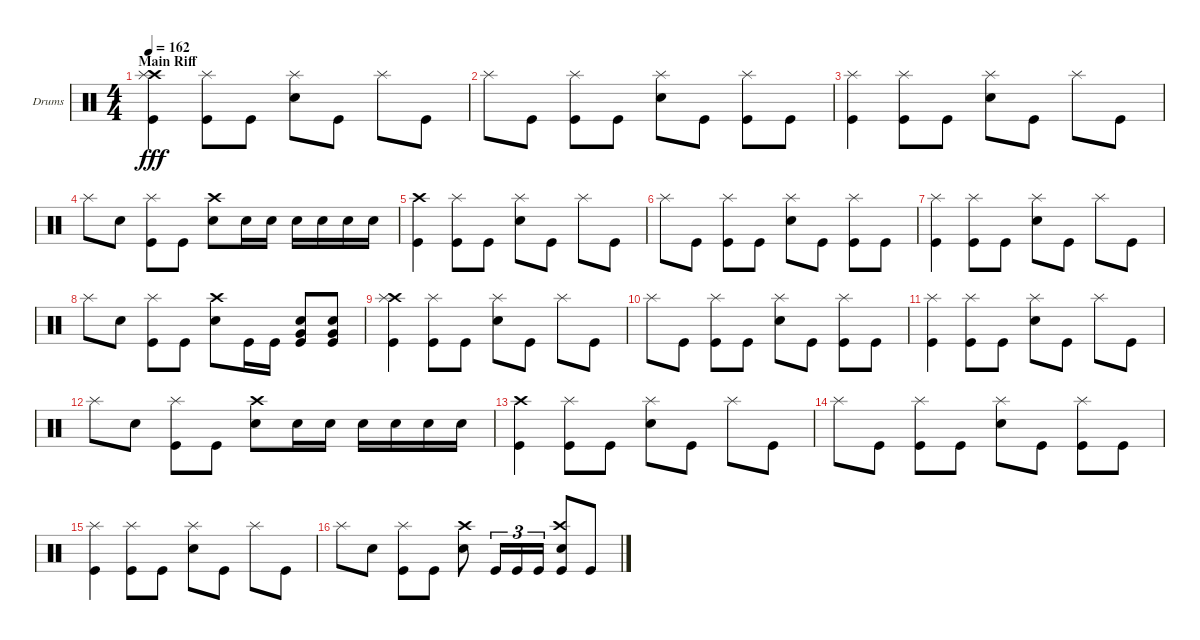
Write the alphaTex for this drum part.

\bracketExtendMode groupsimilarinstruments
\firstSystemTrackNameOrientation horizontal
\otherSystemsTrackNameOrientation horizontal
\track ("Drumkit" "Drums") {instrument percussion}
\staff {score}
\articulation defaults
\ts (4 4)
\section ("" "Main Riff")
\tempo 162
\clef neutral
\ks c
("Kick (hit)" "Crash high (hit)" "Splash (hit)").4{dy fff} ("Splash (hit)" "Kick (hit)").8 "Kick (hit)".8 ("Splash (hit)" "Snare (hit) 2").8 "Kick (hit)".8 "Splash (hit)".8 "Kick (hit)".8 |
"Splash (hit)".8 "Kick (hit)".8 ("Splash (hit)" "Kick (hit)").8 "Kick (hit)".8 ("Splash (hit)" "Snare (hit) 2").8 "Kick (hit)".8 ("Kick (hit)" "Splash (hit)").8 "Kick (hit)".8 |
("Kick (hit)" "Splash (hit)").4 ("Splash (hit)" "Kick (hit)").8 "Kick (hit)".8 ("Splash (hit)" "Snare (hit) 2").8 "Kick (hit)".8 "Splash (hit)".8 "Kick (hit)".8 |
"Splash (hit)".8 "Snare (hit) 2".8 ("Splash (hit)" "Kick (hit)").8 "Kick (hit)".8 ("Snare (hit) 2" "Crash high (hit)").8 "Snare (hit) 2".16 "Snare (hit) 2".16 "Snare (hit) 2".16 "Snare (hit) 2".16 "Snare (hit) 2".16 "Snare (hit) 2".16 |
("Kick (hit)" "Crash high (hit)").4 ("Splash (hit)" "Kick (hit)").8 "Kick (hit)".8 ("Splash (hit)" "Snare (hit) 2").8 "Kick (hit)".8 "Splash (hit)".8 "Kick (hit)".8 |
"Splash (hit)".8 "Kick (hit)".8 ("Splash (hit)" "Kick (hit)").8 "Kick (hit)".8 ("Splash (hit)" "Snare (hit) 2").8 "Kick (hit)".8 ("Kick (hit)" "Splash (hit)").8 "Kick (hit)".8 |
("Kick (hit)" "Splash (hit)").4 ("Splash (hit)" "Kick (hit)").8 "Kick (hit)".8 ("Splash (hit)" "Snare (hit) 2").8 "Kick (hit)".8 "Splash (hit)".8 "Kick (hit)".8 |
"Splash (hit)".8 "Snare (hit) 2".8 ("Splash (hit)" "Kick (hit)").8 "Kick (hit)".8 ("Snare (hit) 2" "Crash high (hit)").8 "Kick (hit)".16 "Kick (hit)".16 ("Very Low Tom (hit)" "Snare (hit) 2" "Kick (hit)").8 ("Very Low Tom (hit)" "Snare (hit) 2" "Kick (hit)").8 |
("Kick (hit)" "Crash high (hit)" "Splash (hit)").4 ("Splash (hit)" "Kick (hit)").8 "Kick (hit)".8 ("Splash (hit)" "Snare (hit) 2").8 "Kick (hit)".8 "Splash (hit)".8 "Kick (hit)".8 |
"Splash (hit)".8 "Kick (hit)".8 ("Splash (hit)" "Kick (hit)").8 "Kick (hit)".8 ("Splash (hit)" "Snare (hit) 2").8 "Kick (hit)".8 ("Kick (hit)" "Splash (hit)").8 "Kick (hit)".8 |
("Kick (hit)" "Splash (hit)").4 ("Splash (hit)" "Kick (hit)").8 "Kick (hit)".8 ("Splash (hit)" "Snare (hit) 2").8 "Kick (hit)".8 "Splash (hit)".8 "Kick (hit)".8 |
"Splash (hit)".8 "Snare (hit) 2".8 ("Splash (hit)" "Kick (hit)").8 "Kick (hit)".8 ("Snare (hit) 2" "Crash high (hit)").8 "Snare (hit) 2".16 "Snare (hit) 2".16 "Snare (hit) 2".16 "Snare (hit) 2".16 "Snare (hit) 2".16 "Snare (hit) 2".16 |
("Kick (hit)" "Crash high (hit)").4 ("Splash (hit)" "Kick (hit)").8 "Kick (hit)".8 ("Splash (hit)" "Snare (hit) 2").8 "Kick (hit)".8 "Splash (hit)".8 "Kick (hit)".8 |
"Splash (hit)".8 "Kick (hit)".8 ("Splash (hit)" "Kick (hit)").8 "Kick (hit)".8 ("Splash (hit)" "Snare (hit) 2").8 "Kick (hit)".8 ("Kick (hit)" "Splash (hit)").8 "Kick (hit)".8 |
("Kick (hit)" "Splash (hit)").4 ("Splash (hit)" "Kick (hit)").8 "Kick (hit)".8 ("Splash (hit)" "Snare (hit) 2").8 "Kick (hit)".8 "Splash (hit)".8 "Kick (hit)".8 |
"Splash (hit)".8 "Snare (hit) 2".8 ("Splash (hit)" "Kick (hit)").8 "Kick (hit)".8 ("Snare (hit) 2" "Crash high (hit)").8 "Kick (hit)".16{tu (3 2)} "Kick (hit)".16{tu (3 2)} "Kick (hit)".16{tu (3 2)} ("Snare (hit) 2" "Kick (hit)" "Crash high (hit)").8 "Kick (hit)".8
